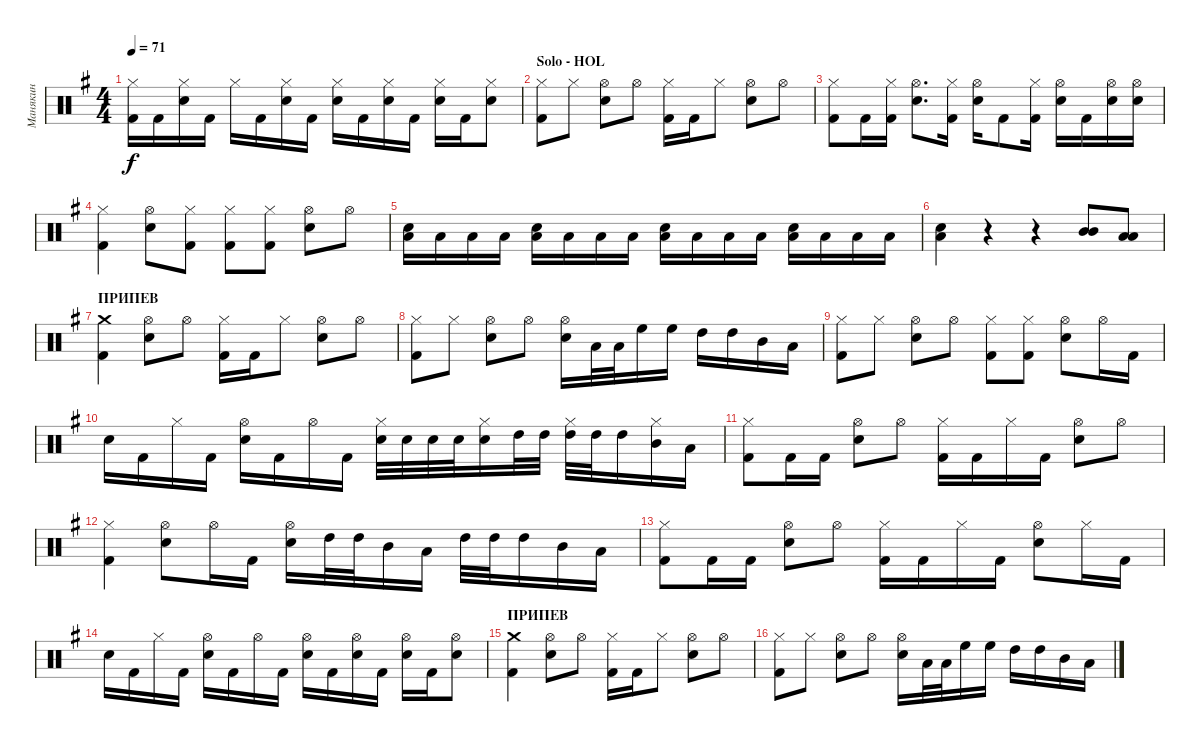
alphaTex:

\track ("Манякин" "Манякин") {instrument percussion}
\staff {score}
\articulation defaults
\ts (4 4)
\tempo 71
\clef neutral
\ks eminor
("Hi-Hat (closed)" "Kick (hit) 2").16{dy f} "Kick (hit) 2".16 ("Hi-Hat (closed)" "Snare (hit) 2").16 "Kick (hit) 2".16 "Hi-Hat (closed)".16 "Kick (hit) 2".16 ("Hi-Hat (closed)" "Snare (hit) 2").16 "Kick (hit) 2".16 ("Hi-Hat (closed)" "Snare (hit) 2").16 "Kick (hit) 2".16 ("Hi-Hat (closed)" "Snare (hit) 2").16 "Kick (hit) 2".16 ("Hi-Hat (closed)" "Snare (hit) 2").16 "Kick (hit) 2".16 ("Hi-Hat (closed)" "Snare (hit) 2").8 |
\section ("" "Solo - HOL")
("Hi-Hat (closed)" "Kick (hit) 2").8 "Hi-Hat (closed)".8 ("Hi-Hat (open)" "Snare (hit) 2").8 "Hi-Hat (open)".8 ("Hi-Hat (closed)" "Kick (hit) 2").16 "Kick (hit) 2".16 "Hi-Hat (closed)".8 ("Hi-Hat (open)" "Snare (hit) 2").8 "Hi-Hat (open)".8 |
("Hi-Hat (closed)" "Kick (hit) 2").8 "Kick (hit) 2".16 ("Hi-Hat (closed)" "Kick (hit) 2").16 ("Hi-Hat (open)" "Snare (hit) 2").8{d} ("Hi-Hat (closed)" "Kick (hit) 2").16 ("Hi-Hat (open)" "Snare (hit) 2").16 "Kick (hit) 2".8 ("Hi-Hat (closed)" "Kick (hit) 2").16 ("Hi-Hat (open)" "Snare (hit) 2").16 "Kick (hit) 2".16 ("Hi-Hat (open)" "Snare (hit) 2").16 ("Hi-Hat (open)" "Snare (hit) 2").16 |
("Hi-Hat (closed)" "Kick (hit) 2").4 ("Hi-Hat (open)" "Snare (hit) 2").8 ("Hi-Hat (closed)" "Kick (hit) 2").8 ("Hi-Hat (closed)" "Kick (hit) 2").8 ("Hi-Hat (closed)" "Kick (hit) 2").8 ("Hi-Hat (open)" "Snare (hit) 2").8 "Hi-Hat (open)".8 |
("Low Tom (hit)" "Snare (hit) 2").16 "Low Tom (hit)".16 "Low Tom (hit)".16 "Low Tom (hit)".16 ("Low Tom (hit)" "Snare (hit) 2").16 "Low Tom (hit)".16 "Low Tom (hit)".16 "Low Tom (hit)".16 ("Low Tom (hit)" "Snare (hit) 2").16 "Low Tom (hit)".16 "Low Tom (hit)".16 "Low Tom (hit)".16 ("Low Tom (hit)" "Snare (hit) 2").16 "Low Tom (hit)".16 "Low Tom (hit)".16 "Low Tom (hit)".16 |
("Low Tom (hit)" "Snare (hit) 2").4 r.4 r.4 ("Mid Tom (hit)" "Mid Tom (hit)").8 ("Low Tom (hit)" "Low Tom (hit)").8 |
\section ("" "ПРИПЕВ")
("Crash medium (hit)" "Kick (hit) 2").4 ("Hi-Hat (open)" "Snare (hit) 2").8 "Hi-Hat (open)".8 ("Hi-Hat (closed)" "Kick (hit) 2").16 "Kick (hit) 2".16 "Hi-Hat (closed)".8 ("Hi-Hat (open)" "Snare (hit) 2").8 "Hi-Hat (open)".8 |
("Hi-Hat (closed)" "Kick (hit) 2").8 "Hi-Hat (closed)".8 ("Hi-Hat (open)" "Snare (hit) 2").8 "Hi-Hat (open)".8 ("Hi-Hat (open)" "Snare (hit) 2").16 "Low Tom (hit)".32 "Low Tom (hit)".32 "High Floor Tom (hit)".16 "High Floor Tom (hit)".16 "High Tom (hit)".16 "High Tom (hit)".16 "Mid Tom (hit)".16 "Low Tom (hit)".16 |
("Hi-Hat (closed)" "Kick (hit) 2").8 "Hi-Hat (closed)".8 ("Hi-Hat (open)" "Snare (hit) 2").8 "Hi-Hat (open)".8 ("Hi-Hat (closed)" "Kick (hit) 2").8 ("Hi-Hat (closed)" "Kick (hit) 2").8 ("Hi-Hat (open)" "Snare (hit) 2").8 "Hi-Hat (open)".16 "Kick (hit) 2".16 |
"Snare (hit) 2".16 "Kick (hit) 2".16 "Hi-Hat (closed)".16 "Kick (hit) 2".16 ("Hi-Hat (open)" "Snare (hit) 2").16 "Kick (hit) 2".16 "Hi-Hat (open)".16 "Kick (hit) 2".16 ("Hi-Hat (closed)" "Snare (hit) 2").32 "Snare (hit) 2".32 "Snare (hit) 2".32 "Snare (hit) 2".32 ("Hi-Hat (closed)" "Snare (hit) 2").16 "High Tom (hit)".32 "High Tom (hit)".32 ("Hi-Hat (closed)" "High Tom (hit)").32 "High Tom (hit)".32 "High Tom (hit)".16 ("Hi-Hat (closed)" "Mid Tom (hit)").16 "Low Tom (hit)".16 |
("Hi-Hat (closed)" "Kick (hit) 2").8 "Kick (hit) 2".16 "Kick (hit) 2".16 ("Hi-Hat (open)" "Snare (hit) 2").8 "Hi-Hat (open)".8 ("Hi-Hat (closed)" "Kick (hit) 2").16 "Kick (hit) 2".16 "Hi-Hat (closed)".16 "Kick (hit) 2".16 ("Hi-Hat (open)" "Snare (hit) 2").8 "Hi-Hat (open)".8 |
("Hi-Hat (closed)" "Kick (hit) 2").4 ("Hi-Hat (open)" "Snare (hit) 2").8 "Hi-Hat (open)".16 "Kick (hit) 2".16 ("Hi-Hat (open)" "Snare (hit) 2").16 "High Tom (hit)".32 "High Tom (hit)".32 "Mid Tom (hit)".16 "Low Tom (hit)".16 "High Tom (hit)".32 "High Tom (hit)".32 "High Tom (hit)".16 "Mid Tom (hit)".16 "Low Tom (hit)".16 |
("Hi-Hat (closed)" "Kick (hit) 2").8 "Kick (hit) 2".16 "Kick (hit) 2".16 ("Hi-Hat (open)" "Snare (hit) 2").8 "Hi-Hat (open)".8 ("Hi-Hat (closed)" "Kick (hit) 2").16 "Kick (hit) 2".16 "Hi-Hat (closed)".16 "Kick (hit) 2".16 ("Hi-Hat (open)" "Snare (hit) 2").8 "Hi-Hat (closed)".16 "Kick (hit) 2".16 |
"Snare (hit) 2".16 "Kick (hit) 2".16 "Hi-Hat (closed)".16 "Kick (hit) 2".16 ("Hi-Hat (open)" "Snare (hit) 2").16 "Kick (hit) 2".16 "Hi-Hat (open)".16 "Kick (hit) 2".16 ("Hi-Hat (open)" "Snare (hit) 2").16 "Kick (hit) 2".16 ("Hi-Hat (open)" "Snare (hit) 2").16 "Kick (hit) 2".16 ("Hi-Hat (open)" "Snare (hit) 2").16 "Kick (hit) 2".16 ("Hi-Hat (open)" "Snare (hit) 2").8 |
\section ("" "ПРИПЕВ")
("Crash medium (hit)" "Kick (hit) 2").4 ("Hi-Hat (open)" "Snare (hit) 2").8 "Hi-Hat (open)".8 ("Hi-Hat (closed)" "Kick (hit) 2").16 "Kick (hit) 2".16 "Hi-Hat (closed)".8 ("Hi-Hat (open)" "Snare (hit) 2").8 "Hi-Hat (open)".8 |
("Hi-Hat (closed)" "Kick (hit) 2").8 "Hi-Hat (closed)".8 ("Hi-Hat (open)" "Snare (hit) 2").8 "Hi-Hat (open)".8 ("Hi-Hat (open)" "Snare (hit) 2").16 "Low Tom (hit)".32 "Low Tom (hit)".32 "High Floor Tom (hit)".16 "High Floor Tom (hit)".16 "High Tom (hit)".16 "High Tom (hit)".16 "Mid Tom (hit)".16 "Low Tom (hit)".16
